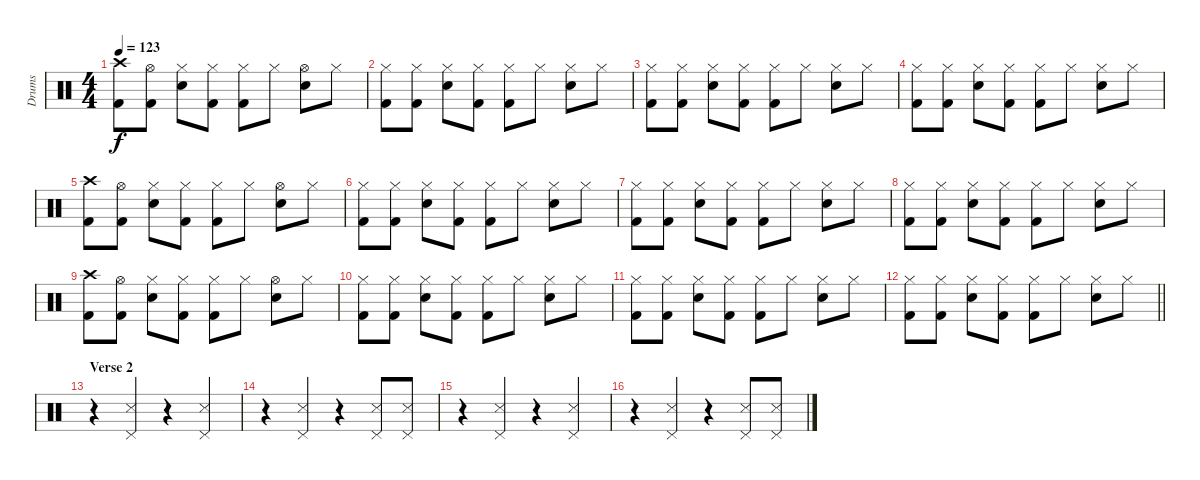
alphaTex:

\track ("Drums" "Drums") {instrument percussion}
\staff {score}
\articulation defaults
\ts (4 4)
\tempo 123
\clef neutral
\ks c
("Kick (hit) 2" "Crash high (hit)").8{dy f} ("Kick (hit) 2" "Hi-Hat (open)").8 ("Electric Snare (hit)" "Hi-Hat (closed)").8 ("Kick (hit) 2" "Hi-Hat (closed)").8 ("Kick (hit) 2" "Hi-Hat (closed)").8 "Hi-Hat (closed)".8 ("Electric Snare (hit)" "Hi-Hat (open)").8 "Hi-Hat (closed)".8 |
("Kick (hit) 2" "Hi-Hat (closed)").8 ("Kick (hit) 2" "Hi-Hat (closed)").8 ("Electric Snare (hit)" "Hi-Hat (closed)").8 ("Kick (hit) 2" "Hi-Hat (closed)").8 ("Kick (hit) 2" "Hi-Hat (closed)").8 "Hi-Hat (closed)".8 ("Electric Snare (hit)" "Hi-Hat (closed)").8 "Hi-Hat (closed)".8 |
("Kick (hit) 2" "Hi-Hat (closed)").8 ("Kick (hit) 2" "Hi-Hat (closed)").8 ("Electric Snare (hit)" "Hi-Hat (closed)").8 ("Kick (hit) 2" "Hi-Hat (closed)").8 ("Kick (hit) 2" "Hi-Hat (closed)").8 "Hi-Hat (closed)".8 ("Electric Snare (hit)" "Hi-Hat (closed)").8 "Hi-Hat (closed)".8 |
("Kick (hit) 2" "Hi-Hat (closed)").8 ("Kick (hit) 2" "Hi-Hat (closed)").8 ("Electric Snare (hit)" "Hi-Hat (closed)").8 ("Kick (hit) 2" "Hi-Hat (closed)").8 ("Kick (hit) 2" "Hi-Hat (closed)").8 "Hi-Hat (closed)".8 ("Electric Snare (hit)" "Hi-Hat (closed)").8 "Hi-Hat (closed)".8 |
("Kick (hit) 2" "Crash high (hit)").8 ("Kick (hit) 2" "Hi-Hat (open)").8 ("Electric Snare (hit)" "Hi-Hat (closed)").8 ("Kick (hit) 2" "Hi-Hat (closed)").8 ("Kick (hit) 2" "Hi-Hat (closed)").8 "Hi-Hat (closed)".8 ("Electric Snare (hit)" "Hi-Hat (open)").8 "Hi-Hat (closed)".8 |
("Kick (hit) 2" "Hi-Hat (closed)").8 ("Kick (hit) 2" "Hi-Hat (closed)").8 ("Electric Snare (hit)" "Hi-Hat (closed)").8 ("Kick (hit) 2" "Hi-Hat (closed)").8 ("Kick (hit) 2" "Hi-Hat (closed)").8 "Hi-Hat (closed)".8 ("Electric Snare (hit)" "Hi-Hat (closed)").8 "Hi-Hat (closed)".8 |
("Kick (hit) 2" "Hi-Hat (closed)").8 ("Kick (hit) 2" "Hi-Hat (closed)").8 ("Electric Snare (hit)" "Hi-Hat (closed)").8 ("Kick (hit) 2" "Hi-Hat (closed)").8 ("Kick (hit) 2" "Hi-Hat (closed)").8 "Hi-Hat (closed)".8 ("Electric Snare (hit)" "Hi-Hat (closed)").8 "Hi-Hat (closed)".8 |
("Kick (hit) 2" "Hi-Hat (closed)").8 ("Kick (hit) 2" "Hi-Hat (closed)").8 ("Electric Snare (hit)" "Hi-Hat (closed)").8 ("Kick (hit) 2" "Hi-Hat (closed)").8 ("Kick (hit) 2" "Hi-Hat (closed)").8 "Hi-Hat (closed)".8 ("Electric Snare (hit)" "Hi-Hat (closed)").8 "Hi-Hat (closed)".8 |
("Kick (hit) 2" "Crash high (hit)").8 ("Kick (hit) 2" "Hi-Hat (open)").8 ("Electric Snare (hit)" "Hi-Hat (closed)").8 ("Kick (hit) 2" "Hi-Hat (closed)").8 ("Kick (hit) 2" "Hi-Hat (closed)").8 "Hi-Hat (closed)".8 ("Electric Snare (hit)" "Hi-Hat (open)").8 "Hi-Hat (closed)".8 |
("Kick (hit) 2" "Hi-Hat (closed)").8 ("Kick (hit) 2" "Hi-Hat (closed)").8 ("Electric Snare (hit)" "Hi-Hat (closed)").8 ("Kick (hit) 2" "Hi-Hat (closed)").8 ("Kick (hit) 2" "Hi-Hat (closed)").8 "Hi-Hat (closed)".8 ("Electric Snare (hit)" "Hi-Hat (closed)").8 "Hi-Hat (closed)".8 |
("Kick (hit) 2" "Hi-Hat (closed)").8 ("Kick (hit) 2" "Hi-Hat (closed)").8 ("Electric Snare (hit)" "Hi-Hat (closed)").8 ("Kick (hit) 2" "Hi-Hat (closed)").8 ("Kick (hit) 2" "Hi-Hat (closed)").8 "Hi-Hat (closed)".8 ("Electric Snare (hit)" "Hi-Hat (closed)").8 "Hi-Hat (closed)".8 |
\barLineRight lightlight
("Kick (hit) 2" "Hi-Hat (closed)").8 ("Kick (hit) 2" "Hi-Hat (closed)").8 ("Electric Snare (hit)" "Hi-Hat (closed)").8 ("Kick (hit) 2" "Hi-Hat (closed)").8 ("Kick (hit) 2" "Hi-Hat (closed)").8 "Hi-Hat (closed)".8 ("Electric Snare (hit)" "Hi-Hat (closed)").8 "Hi-Hat (closed)".8 |
\section ("" "Verse 2")
r.4 ("Snare (side stick) 3" "Pedal Hi-Hat (hit)").4 r.4 ("Snare (side stick) 3" "Pedal Hi-Hat (hit)").4 |
r.4 ("Snare (side stick) 3" "Pedal Hi-Hat (hit)").4 r.4 ("Snare (side stick) 3" "Pedal Hi-Hat (hit)").8 ("Snare (side stick) 3" "Pedal Hi-Hat (hit)").8 |
r.4 ("Snare (side stick) 3" "Pedal Hi-Hat (hit)").4 r.4 ("Snare (side stick) 3" "Pedal Hi-Hat (hit)").4 |
r.4 ("Snare (side stick) 3" "Pedal Hi-Hat (hit)").4 r.4 ("Snare (side stick) 3" "Pedal Hi-Hat (hit)").8 ("Snare (side stick) 3" "Pedal Hi-Hat (hit)").8
